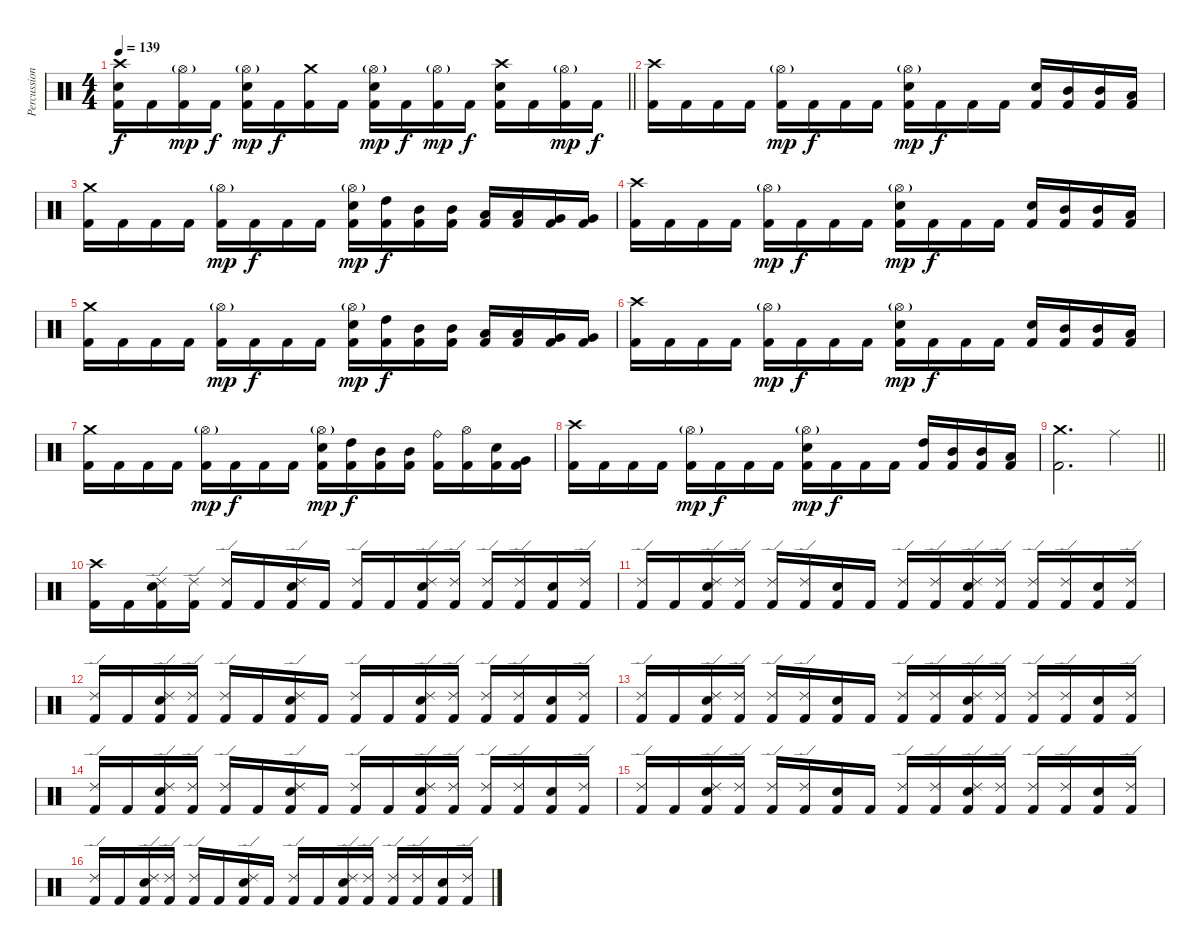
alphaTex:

\track ("Percussion" "Percussion") {instrument percussion}
\staff {score}
\articulation defaults
\ts (4 4)
\tempo 139
\clef neutral
\barLineRight lightlight
\ks c
("Crash high (hit)" "Electric Snare (hit)" "Kick (hit) 2").16{dy f} "Kick (hit) 2".16 ("Hi-Hat (open)"{g} "Kick (hit) 2").16{dy mp} "Kick (hit) 2".16{dy f} ("Hi-Hat (open)"{g} "Electric Snare (hit)" "Kick (hit) 2").16{dy mp} "Kick (hit) 2".16{dy f} ("Crash medium (hit)" "Kick (hit) 2").16 "Kick (hit) 2".16 ("Hi-Hat (open)"{g} "Electric Snare (hit)" "Kick (hit) 2").16{dy mp} "Kick (hit) 2".16{dy f} ("Hi-Hat (open)"{g} "Kick (hit) 2").16{dy mp} "Kick (hit) 2".16{dy f} ("Crash high (hit)" "Electric Snare (hit)" "Kick (hit) 2").16 "Kick (hit) 2".16 ("Hi-Hat (open)"{g} "Kick (hit) 2").16{dy mp} "Kick (hit) 2".16{dy f} |
("Crash high (hit)" "Kick (hit) 2").16 "Kick (hit) 2".16 "Kick (hit) 2".16 "Kick (hit) 2".16 ("Hi-Hat (open)"{g} "Kick (hit) 2").16{dy mp} "Kick (hit) 2".16{dy f} "Kick (hit) 2".16 "Kick (hit) 2".16 ("Hi-Hat (open)"{g} "Electric Snare (hit)" "Kick (hit) 2").16{dy mp} "Kick (hit) 2".16{dy f} "Kick (hit) 2".16 "Kick (hit) 2".16 ("Electric Snare (hit)" "Kick (hit) 2").16 ("Mid Tom (hit)" "Kick (hit) 2").16 ("Mid Tom (hit)" "Kick (hit) 2").16 ("Low Tom (hit)" "Kick (hit) 2").16 |
("Crash medium (hit)" "Kick (hit) 2").16 "Kick (hit) 2".16 "Kick (hit) 2".16 "Kick (hit) 2".16 ("Hi-Hat (open)"{g} "Kick (hit) 2").16{dy mp} "Kick (hit) 2".16{dy f} "Kick (hit) 2".16 "Kick (hit) 2".16 ("Hi-Hat (open)"{g} "Electric Snare (hit)" "Kick (hit) 2").16{dy mp} ("High Tom (hit)" "Kick (hit) 2").16{dy f} ("Mid Tom (hit)" "Kick (hit) 2").16 ("Mid Tom (hit)" "Kick (hit) 2").16 ("Low Tom (hit)" "Kick (hit) 2").16 ("Low Tom (hit)" "Kick (hit) 2").16 ("Very Low Tom (hit)" "Kick (hit) 2").16 ("Very Low Tom (hit)" "Kick (hit) 2").16 |
("Crash high (hit)" "Kick (hit) 2").16 "Kick (hit) 2".16 "Kick (hit) 2".16 "Kick (hit) 2".16 ("Hi-Hat (open)"{g} "Kick (hit) 2").16{dy mp} "Kick (hit) 2".16{dy f} "Kick (hit) 2".16 "Kick (hit) 2".16 ("Hi-Hat (open)"{g} "Electric Snare (hit)" "Kick (hit) 2").16{dy mp} "Kick (hit) 2".16{dy f} "Kick (hit) 2".16 "Kick (hit) 2".16 ("Electric Snare (hit)" "Kick (hit) 2").16 ("Mid Tom (hit)" "Kick (hit) 2").16 ("Mid Tom (hit)" "Kick (hit) 2").16 ("Low Tom (hit)" "Kick (hit) 2").16 |
("Crash medium (hit)" "Kick (hit) 2").16 "Kick (hit) 2".16 "Kick (hit) 2".16 "Kick (hit) 2".16 ("Hi-Hat (open)"{g} "Kick (hit) 2").16{dy mp} "Kick (hit) 2".16{dy f} "Kick (hit) 2".16 "Kick (hit) 2".16 ("Hi-Hat (open)"{g} "Electric Snare (hit)" "Kick (hit) 2").16{dy mp} ("High Tom (hit)" "Kick (hit) 2").16{dy f} ("Mid Tom (hit)" "Kick (hit) 2").16 ("Mid Tom (hit)" "Kick (hit) 2").16 ("Low Tom (hit)" "Kick (hit) 2").16 ("Low Tom (hit)" "Kick (hit) 2").16 ("Very Low Tom (hit)" "Kick (hit) 2").16 ("Very Low Tom (hit)" "Kick (hit) 2").16 |
("Crash high (hit)" "Kick (hit) 2").16 "Kick (hit) 2".16 "Kick (hit) 2".16 "Kick (hit) 2".16 ("Hi-Hat (open)"{g} "Kick (hit) 2").16{dy mp} "Kick (hit) 2".16{dy f} "Kick (hit) 2".16 "Kick (hit) 2".16 ("Hi-Hat (open)"{g} "Electric Snare (hit)" "Kick (hit) 2").16{dy mp} "Kick (hit) 2".16{dy f} "Kick (hit) 2".16 "Kick (hit) 2".16 ("Electric Snare (hit)" "Kick (hit) 2").16 ("Mid Tom (hit)" "Kick (hit) 2").16 ("Mid Tom (hit)" "Kick (hit) 2").16 ("Low Tom (hit)" "Kick (hit) 2").16 |
("Crash medium (hit)" "Kick (hit) 2").16 "Kick (hit) 2".16 "Kick (hit) 2".16 "Kick (hit) 2".16 ("Hi-Hat (open)"{g} "Kick (hit) 2").16{dy mp} "Kick (hit) 2".16{dy f} "Kick (hit) 2".16 "Kick (hit) 2".16 ("Hi-Hat (open)"{g} "Electric Snare (hit)" "Kick (hit) 2").16{dy mp} ("High Tom (hit)" "Kick (hit) 2").16{dy f} ("Mid Tom (hit)" "Kick (hit) 2").16 ("Mid Tom (hit)" "Kick (hit) 2").16 ("Ride (bell)" "Kick (hit) 2").16 ("Hi-Hat (open)" "Kick (hit) 2").16 ("Electric Snare (hit)" "Kick (hit) 2").16 ("Very Low Tom (hit)" "Kick (hit) 2").16 |
("Crash high (hit)" "Kick (hit) 2").16 "Kick (hit) 2".16 "Kick (hit) 2".16 "Kick (hit) 2".16 ("Hi-Hat (open)"{g} "Kick (hit) 2").16{dy mp} "Kick (hit) 2".16{dy f} "Kick (hit) 2".16 "Kick (hit) 2".16 ("Hi-Hat (open)"{g} "Electric Snare (hit)" "Kick (hit) 2").16{dy mp} "Kick (hit) 2".16{dy f} "Kick (hit) 2".16 "Kick (hit) 2".16 ("High Tom (hit)" "Kick (hit) 2").16 ("Mid Tom (hit)" "Kick (hit) 2").16 ("Mid Tom (hit)" "Kick (hit) 2").16 ("Low Tom (hit)" "Kick (hit) 2").16 |
\barLineRight lightlight
("Crash medium (hit)" "Kick (hit) 2").2{d} "Ride (middle)".4 |
("Crash high (hit)" "Kick (hit) 2").16 "Kick (hit) 2".16 ("Ride (edge) 2" "Electric Snare (hit)" "Kick (hit) 2").16 ("Ride (edge) 2" "Kick (hit) 2").16 ("Ride (edge) 2" "Kick (hit) 2").16 "Kick (hit) 2".16 ("Ride (edge) 2" "Electric Snare (hit)" "Kick (hit) 2").16 "Kick (hit) 2".16 ("Ride (edge) 2" "Kick (hit) 2").16 "Kick (hit) 2".16 ("Ride (edge) 2" "Electric Snare (hit)" "Kick (hit) 2").16 ("Ride (edge) 2" "Kick (hit) 2").16 ("Ride (edge) 2" "Kick (hit) 2").16 ("Ride (edge) 2" "Kick (hit) 2").16 ("Electric Snare (hit)" "Kick (hit) 2").16 ("Ride (edge) 2" "Kick (hit) 2").16 |
("Ride (edge) 2" "Kick (hit) 2").16 "Kick (hit) 2".16 ("Ride (edge) 2" "Electric Snare (hit)" "Kick (hit) 2").16 ("Ride (edge) 2" "Kick (hit) 2").16 ("Ride (edge) 2" "Kick (hit) 2").16 ("Ride (edge) 2" "Kick (hit) 2").16 ("Electric Snare (hit)" "Kick (hit) 2").16 "Kick (hit) 2".16 ("Ride (edge) 2" "Kick (hit) 2").16 ("Ride (edge) 2" "Kick (hit) 2").16 ("Ride (edge) 2" "Electric Snare (hit)" "Kick (hit) 2").16 ("Ride (edge) 2" "Kick (hit) 2").16 ("Ride (edge) 2" "Kick (hit) 2").16 ("Ride (edge) 2" "Kick (hit) 2").16 ("Electric Snare (hit)" "Kick (hit) 2").16 ("Ride (edge) 2" "Kick (hit) 2").16 |
("Ride (edge) 2" "Kick (hit) 2").16 "Kick (hit) 2".16 ("Ride (edge) 2" "Electric Snare (hit)" "Kick (hit) 2").16 ("Ride (edge) 2" "Kick (hit) 2").16 ("Ride (edge) 2" "Kick (hit) 2").16 "Kick (hit) 2".16 ("Ride (edge) 2" "Electric Snare (hit)" "Kick (hit) 2").16 "Kick (hit) 2".16 ("Ride (edge) 2" "Kick (hit) 2").16 "Kick (hit) 2".16 ("Ride (edge) 2" "Electric Snare (hit)" "Kick (hit) 2").16 ("Ride (edge) 2" "Kick (hit) 2").16 ("Ride (edge) 2" "Kick (hit) 2").16 ("Ride (edge) 2" "Kick (hit) 2").16 ("Electric Snare (hit)" "Kick (hit) 2").16 ("Ride (edge) 2" "Kick (hit) 2").16 |
("Ride (edge) 2" "Kick (hit) 2").16 "Kick (hit) 2".16 ("Ride (edge) 2" "Electric Snare (hit)" "Kick (hit) 2").16 ("Ride (edge) 2" "Kick (hit) 2").16 ("Ride (edge) 2" "Kick (hit) 2").16 ("Ride (edge) 2" "Kick (hit) 2").16 ("Electric Snare (hit)" "Kick (hit) 2").16 "Kick (hit) 2".16 ("Ride (edge) 2" "Kick (hit) 2").16 ("Ride (edge) 2" "Kick (hit) 2").16 ("Ride (edge) 2" "Electric Snare (hit)" "Kick (hit) 2").16 ("Ride (edge) 2" "Kick (hit) 2").16 ("Ride (edge) 2" "Kick (hit) 2").16 ("Ride (edge) 2" "Kick (hit) 2").16 ("Electric Snare (hit)" "Kick (hit) 2").16 ("Ride (edge) 2" "Kick (hit) 2").16 |
("Ride (edge) 2" "Kick (hit) 2").16 "Kick (hit) 2".16 ("Ride (edge) 2" "Electric Snare (hit)" "Kick (hit) 2").16 ("Ride (edge) 2" "Kick (hit) 2").16 ("Ride (edge) 2" "Kick (hit) 2").16 "Kick (hit) 2".16 ("Ride (edge) 2" "Electric Snare (hit)" "Kick (hit) 2").16 "Kick (hit) 2".16 ("Ride (edge) 2" "Kick (hit) 2").16 "Kick (hit) 2".16 ("Ride (edge) 2" "Electric Snare (hit)" "Kick (hit) 2").16 ("Ride (edge) 2" "Kick (hit) 2").16 ("Ride (edge) 2" "Kick (hit) 2").16 ("Ride (edge) 2" "Kick (hit) 2").16 ("Electric Snare (hit)" "Kick (hit) 2").16 ("Ride (edge) 2" "Kick (hit) 2").16 |
("Ride (edge) 2" "Kick (hit) 2").16 "Kick (hit) 2".16 ("Ride (edge) 2" "Electric Snare (hit)" "Kick (hit) 2").16 ("Ride (edge) 2" "Kick (hit) 2").16 ("Ride (edge) 2" "Kick (hit) 2").16 ("Ride (edge) 2" "Kick (hit) 2").16 ("Electric Snare (hit)" "Kick (hit) 2").16 "Kick (hit) 2".16 ("Ride (edge) 2" "Kick (hit) 2").16 ("Ride (edge) 2" "Kick (hit) 2").16 ("Ride (edge) 2" "Electric Snare (hit)" "Kick (hit) 2").16 ("Ride (edge) 2" "Kick (hit) 2").16 ("Ride (edge) 2" "Kick (hit) 2").16 ("Ride (edge) 2" "Kick (hit) 2").16 ("Electric Snare (hit)" "Kick (hit) 2").16 ("Ride (edge) 2" "Kick (hit) 2").16 |
("Ride (edge) 2" "Kick (hit) 2").16 "Kick (hit) 2".16 ("Ride (edge) 2" "Electric Snare (hit)" "Kick (hit) 2").16 ("Ride (edge) 2" "Kick (hit) 2").16 ("Ride (edge) 2" "Kick (hit) 2").16 "Kick (hit) 2".16 ("Ride (edge) 2" "Electric Snare (hit)" "Kick (hit) 2").16 "Kick (hit) 2".16 ("Ride (edge) 2" "Kick (hit) 2").16 "Kick (hit) 2".16 ("Ride (edge) 2" "Electric Snare (hit)" "Kick (hit) 2").16 ("Ride (edge) 2" "Kick (hit) 2").16 ("Ride (edge) 2" "Kick (hit) 2").16 ("Ride (edge) 2" "Kick (hit) 2").16 ("Electric Snare (hit)" "Kick (hit) 2").16 ("Ride (edge) 2" "Kick (hit) 2").16
